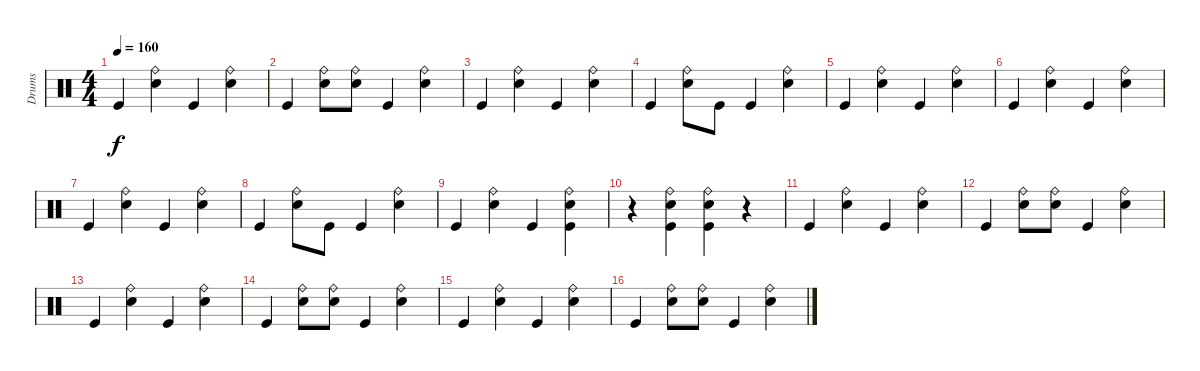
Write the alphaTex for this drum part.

\track ("Drums" "Drums") {instrument percussion}
\staff {score}
\articulation defaults
\ts (4 4)
\tempo 160
\clef neutral
\ks c "Kick (hit)".4{dy f}
("Snare (hit) 2" "Ride (bell)").4 "Kick (hit)".4 ("Snare (hit) 2" "Ride (bell)").4 |
"Kick (hit)".4 ("Snare (hit) 2" "Ride (bell)").8 ("Ride (bell)" "Snare (hit) 2").8 "Kick (hit)".4 ("Snare (hit) 2" "Ride (bell)").4 |
"Kick (hit)".4 ("Snare (hit) 2" "Ride (bell)").4 "Kick (hit)".4 ("Snare (hit) 2" "Ride (bell)").4 |
"Kick (hit)".4 ("Snare (hit) 2" "Ride (bell)").8 "Kick (hit)".8 "Kick (hit)".4 ("Snare (hit) 2" "Ride (bell)").4 |
"Kick (hit)".4 ("Snare (hit) 2" "Ride (bell)").4 "Kick (hit)".4 ("Snare (hit) 2" "Ride (bell)").4 |
"Kick (hit)".4 ("Snare (hit) 2" "Ride (bell)").4 "Kick (hit)".4 ("Snare (hit) 2" "Ride (bell)").4 |
"Kick (hit)".4 ("Snare (hit) 2" "Ride (bell)").4 "Kick (hit)".4 ("Snare (hit) 2" "Ride (bell)").4 |
"Kick (hit)".4 ("Snare (hit) 2" "Ride (bell)").8 "Kick (hit)".8 "Kick (hit)".4 ("Snare (hit) 2" "Ride (bell)").4 |
"Kick (hit)".4 ("Ride (bell)" "Snare (hit) 2").4 "Kick (hit)".4 ("Ride (bell)" "Snare (hit) 2" "Kick (hit)").4 |
r.4 ("Ride (bell)" "Snare (hit) 2" "Kick (hit)").4 ("Ride (bell)" "Snare (hit) 2" "Kick (hit)").4 r.4 |
"Kick (hit)".4 ("Snare (hit) 2" "Ride (bell)").4 "Kick (hit)".4 ("Snare (hit) 2" "Ride (bell)").4 |
"Kick (hit)".4 ("Snare (hit) 2" "Ride (bell)").8 ("Ride (bell)" "Snare (hit) 2").8 "Kick (hit)".4 ("Snare (hit) 2" "Ride (bell)").4 |
"Kick (hit)".4 ("Snare (hit) 2" "Ride (bell)").4 "Kick (hit)".4 ("Snare (hit) 2" "Ride (bell)").4 |
"Kick (hit)".4 ("Snare (hit) 2" "Ride (bell)").8 ("Ride (bell)" "Snare (hit) 2").8 "Kick (hit)".4 ("Snare (hit) 2" "Ride (bell)").4 |
"Kick (hit)".4 ("Snare (hit) 2" "Ride (bell)").4 "Kick (hit)".4 ("Snare (hit) 2" "Ride (bell)").4 |
"Kick (hit)".4 ("Snare (hit) 2" "Ride (bell)").8 ("Ride (bell)" "Snare (hit) 2").8 "Kick (hit)".4 ("Snare (hit) 2" "Ride (bell)").4
